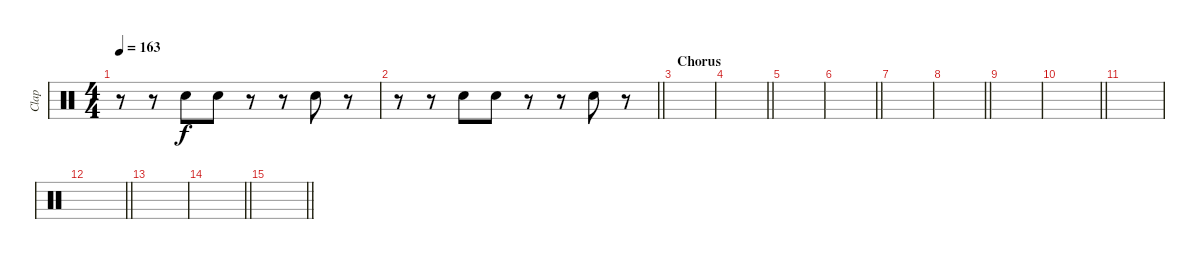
\track ("Clap" "Clap") {instrument percussion}
\staff {score}
\articulation defaults
\ts (4 4)
\tempo 163
\clef neutral
\ks c
r.8{dy f} r.8 "Hand Clap (hit)".8 "Hand Clap (hit)".8 r.8 r.8 "Hand Clap (hit)".8 r.8 |
\barLineRight lightlight
r.8 r.8 "Hand Clap (hit)".8 "Hand Clap (hit)".8 r.8 r.8 "Hand Clap (hit)".8 r.8 |
\section ("" "Chorus")
|
\barLineRight lightlight
|
|
\barLineRight lightlight
|
|
\barLineRight lightlight
|
|
\barLineRight lightlight
|
|
\barLineRight lightlight
|
|
\barLineRight lightlight
|
\section ("" "")
\barLineRight lightlight
